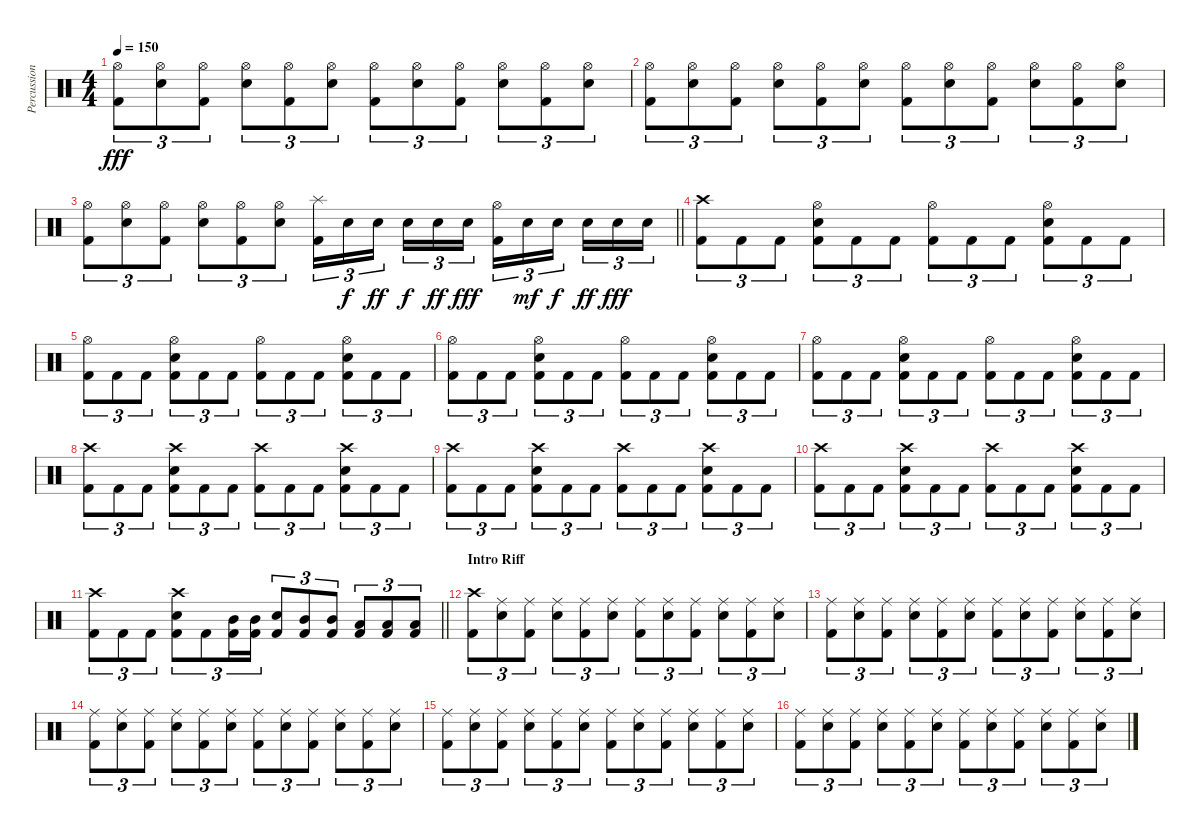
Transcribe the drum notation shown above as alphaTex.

\track ("Percussion" "Percussion") {instrument percussion}
\staff {score}
\articulation defaults
\ts (4 4)
\tempo 150
\clef neutral
\ks c
("Hi-Hat (open)" "Kick (hit) 2").8{tu (3 2) dy fff} ("Snare (hit) 2" "Hi-Hat (open)").8{tu (3 2)} ("Hi-Hat (open)" "Kick (hit) 2").8{tu (3 2)} ("Snare (hit) 2" "Hi-Hat (open)").8{tu (3 2)} ("Hi-Hat (open)" "Kick (hit) 2").8{tu (3 2)} ("Snare (hit) 2" "Hi-Hat (open)").8{tu (3 2)} ("Hi-Hat (open)" "Kick (hit) 2").8{tu (3 2)} ("Snare (hit) 2" "Hi-Hat (open)").8{tu (3 2)} ("Hi-Hat (open)" "Kick (hit) 2").8{tu (3 2)} ("Snare (hit) 2" "Hi-Hat (open)").8{tu (3 2)} ("Hi-Hat (open)" "Kick (hit) 2").8{tu (3 2)} ("Snare (hit) 2" "Hi-Hat (open)").8{tu (3 2)} |
("Hi-Hat (open)" "Kick (hit) 2").8{tu (3 2)} ("Snare (hit) 2" "Hi-Hat (open)").8{tu (3 2)} ("Hi-Hat (open)" "Kick (hit) 2").8{tu (3 2)} ("Snare (hit) 2" "Hi-Hat (open)").8{tu (3 2)} ("Hi-Hat (open)" "Kick (hit) 2").8{tu (3 2)} ("Snare (hit) 2" "Hi-Hat (open)").8{tu (3 2)} ("Hi-Hat (open)" "Kick (hit) 2").8{tu (3 2)} ("Snare (hit) 2" "Hi-Hat (open)").8{tu (3 2)} ("Hi-Hat (open)" "Kick (hit) 2").8{tu (3 2)} ("Snare (hit) 2" "Hi-Hat (open)").8{tu (3 2)} ("Hi-Hat (open)" "Kick (hit) 2").8{tu (3 2)} ("Snare (hit) 2" "Hi-Hat (open)").8{tu (3 2)} |
\barLineRight lightlight
("Hi-Hat (open)" "Kick (hit) 2").8{tu (3 2)} ("Snare (hit) 2" "Hi-Hat (open)").8{tu (3 2)} ("Hi-Hat (open)" "Kick (hit) 2").8{tu (3 2)} ("Snare (hit) 2" "Hi-Hat (open)").8{tu (3 2)} ("Hi-Hat (open)" "Kick (hit) 2").8{tu (3 2)} ("Snare (hit) 2" "Hi-Hat (open)").8{tu (3 2)} ("Splash (hit)" "Kick (hit) 2").16{tu (3 2)} "Snare (hit) 2".16{tu (3 2) dy f} "Snare (hit) 2".16{tu (3 2) dy ff beam splitsecondary} "Snare (hit) 2".16{tu (3 2) dy f} "Snare (hit) 2".16{tu (3 2) dy ff} "Snare (hit) 2".16{tu (3 2) dy fff} ("Hi-Hat (open)" "Kick (hit) 2").16{tu (3 2)} "Snare (hit) 2".16{tu (3 2) dy mf} "Snare (hit) 2".16{tu (3 2) dy f beam splitsecondary} "Snare (hit) 2".16{tu (3 2) dy ff} "Snare (hit) 2".16{tu (3 2) dy fff} "Snare (hit) 2".16{tu (3 2)} |
\section ("" "")
("Crash high (hit)" "Kick (hit) 2").8{tu (3 2)} "Kick (hit) 2".8{tu (3 2)} "Kick (hit) 2".8{tu (3 2)} ("Snare (hit) 2" "Hi-Hat (open)" "Kick (hit) 2").8{tu (3 2)} "Kick (hit) 2".8{tu (3 2)} "Kick (hit) 2".8{tu (3 2)} ("Hi-Hat (open)" "Kick (hit) 2").8{tu (3 2)} "Kick (hit) 2".8{tu (3 2)} "Kick (hit) 2".8{tu (3 2)} ("Snare (hit) 2" "Hi-Hat (open)" "Kick (hit) 2").8{tu (3 2)} "Kick (hit) 2".8{tu (3 2)} "Kick (hit) 2".8{tu (3 2)} |
("Hi-Hat (open)" "Kick (hit) 2").8{tu (3 2)} "Kick (hit) 2".8{tu (3 2)} "Kick (hit) 2".8{tu (3 2)} ("Snare (hit) 2" "Hi-Hat (open)" "Kick (hit) 2").8{tu (3 2)} "Kick (hit) 2".8{tu (3 2)} "Kick (hit) 2".8{tu (3 2)} ("Hi-Hat (open)" "Kick (hit) 2").8{tu (3 2)} "Kick (hit) 2".8{tu (3 2)} "Kick (hit) 2".8{tu (3 2)} ("Snare (hit) 2" "Hi-Hat (open)" "Kick (hit) 2").8{tu (3 2)} "Kick (hit) 2".8{tu (3 2)} "Kick (hit) 2".8{tu (3 2)} |
("Hi-Hat (open)" "Kick (hit) 2").8{tu (3 2)} "Kick (hit) 2".8{tu (3 2)} "Kick (hit) 2".8{tu (3 2)} ("Snare (hit) 2" "Hi-Hat (open)" "Kick (hit) 2").8{tu (3 2)} "Kick (hit) 2".8{tu (3 2)} "Kick (hit) 2".8{tu (3 2)} ("Hi-Hat (open)" "Kick (hit) 2").8{tu (3 2)} "Kick (hit) 2".8{tu (3 2)} "Kick (hit) 2".8{tu (3 2)} ("Snare (hit) 2" "Hi-Hat (open)" "Kick (hit) 2").8{tu (3 2)} "Kick (hit) 2".8{tu (3 2)} "Kick (hit) 2".8{tu (3 2)} |
("Hi-Hat (open)" "Kick (hit) 2").8{tu (3 2)} "Kick (hit) 2".8{tu (3 2)} "Kick (hit) 2".8{tu (3 2)} ("Snare (hit) 2" "Hi-Hat (open)" "Kick (hit) 2").8{tu (3 2)} "Kick (hit) 2".8{tu (3 2)} "Kick (hit) 2".8{tu (3 2)} ("Hi-Hat (open)" "Kick (hit) 2").8{tu (3 2)} "Kick (hit) 2".8{tu (3 2)} "Kick (hit) 2".8{tu (3 2)} ("Snare (hit) 2" "Hi-Hat (open)" "Kick (hit) 2").8{tu (3 2)} "Kick (hit) 2".8{tu (3 2)} "Kick (hit) 2".8{tu (3 2)} |
("Crash high (hit)" "Kick (hit) 2").8{tu (3 2)} "Kick (hit) 2".8{tu (3 2)} "Kick (hit) 2".8{tu (3 2)} ("Crash high (hit)" "Snare (hit) 2" "Kick (hit) 2").8{tu (3 2)} "Kick (hit) 2".8{tu (3 2)} "Kick (hit) 2".8{tu (3 2)} ("Crash high (hit)" "Kick (hit) 2").8{tu (3 2)} "Kick (hit) 2".8{tu (3 2)} "Kick (hit) 2".8{tu (3 2)} ("Crash high (hit)" "Snare (hit) 2" "Kick (hit) 2").8{tu (3 2)} "Kick (hit) 2".8{tu (3 2)} "Kick (hit) 2".8{tu (3 2)} |
("Crash high (hit)" "Kick (hit) 2").8{tu (3 2)} "Kick (hit) 2".8{tu (3 2)} "Kick (hit) 2".8{tu (3 2)} ("Crash high (hit)" "Snare (hit) 2" "Kick (hit) 2").8{tu (3 2)} "Kick (hit) 2".8{tu (3 2)} "Kick (hit) 2".8{tu (3 2)} ("Crash high (hit)" "Kick (hit) 2").8{tu (3 2)} "Kick (hit) 2".8{tu (3 2)} "Kick (hit) 2".8{tu (3 2)} ("Crash high (hit)" "Snare (hit) 2" "Kick (hit) 2").8{tu (3 2)} "Kick (hit) 2".8{tu (3 2)} "Kick (hit) 2".8{tu (3 2)} |
("Crash high (hit)" "Kick (hit) 2").8{tu (3 2)} "Kick (hit) 2".8{tu (3 2)} "Kick (hit) 2".8{tu (3 2)} ("Crash high (hit)" "Snare (hit) 2" "Kick (hit) 2").8{tu (3 2)} "Kick (hit) 2".8{tu (3 2)} "Kick (hit) 2".8{tu (3 2)} ("Crash high (hit)" "Kick (hit) 2").8{tu (3 2)} "Kick (hit) 2".8{tu (3 2)} "Kick (hit) 2".8{tu (3 2)} ("Crash high (hit)" "Snare (hit) 2" "Kick (hit) 2").8{tu (3 2)} "Kick (hit) 2".8{tu (3 2)} "Kick (hit) 2".8{tu (3 2)} |
\barLineRight lightlight
("Crash high (hit)" "Kick (hit) 2").8{tu (3 2)} "Kick (hit) 2".8{tu (3 2)} "Kick (hit) 2".8{tu (3 2)} ("Crash high (hit)" "Snare (hit) 2" "Kick (hit) 2").8{tu (3 2)} "Kick (hit) 2".8{tu (3 2)} ("Mid Tom (hit)" "Kick (hit) 2").16{tu (3 2)} ("Mid Tom (hit)" "Kick (hit) 2").16{tu (3 2)} ("Snare (hit) 2" "Kick (hit) 2").8{tu (3 2)} ("Mid Tom (hit)" "Kick (hit) 2").8{tu (3 2)} ("Mid Tom (hit)" "Kick (hit) 2").8{tu (3 2)} ("Low Tom (hit)" "Kick (hit) 2").8{tu (3 2)} ("Low Tom (hit)" "Kick (hit) 2").8{tu (3 2)} ("Low Tom (hit)" "Kick (hit) 2").8{tu (3 2)} |
\section ("" "Intro Riff")
("Crash high (hit)" "Kick (hit) 2").8{tu (3 2)} ("Snare (hit) 2" "Ride (middle)").8{tu (3 2)} ("Ride (middle)" "Kick (hit) 2").8{tu (3 2)} ("Snare (hit) 2" "Ride (middle)").8{tu (3 2)} ("Ride (middle)" "Kick (hit) 2").8{tu (3 2)} ("Snare (hit) 2" "Ride (middle)").8{tu (3 2)} ("Ride (middle)" "Kick (hit) 2").8{tu (3 2)} ("Snare (hit) 2" "Ride (middle)").8{tu (3 2)} ("Ride (middle)" "Kick (hit) 2").8{tu (3 2)} ("Snare (hit) 2" "Ride (middle)").8{tu (3 2)} ("Ride (middle)" "Kick (hit) 2").8{tu (3 2)} ("Snare (hit) 2" "Ride (middle)").8{tu (3 2)} |
("Ride (middle)" "Kick (hit) 2").8{tu (3 2)} ("Snare (hit) 2" "Ride (middle)").8{tu (3 2)} ("Ride (middle)" "Kick (hit) 2").8{tu (3 2)} ("Snare (hit) 2" "Ride (middle)").8{tu (3 2)} ("Ride (middle)" "Kick (hit) 2").8{tu (3 2)} ("Snare (hit) 2" "Ride (middle)").8{tu (3 2)} ("Ride (middle)" "Kick (hit) 2").8{tu (3 2)} ("Snare (hit) 2" "Ride (middle)").8{tu (3 2)} ("Ride (middle)" "Kick (hit) 2").8{tu (3 2)} ("Snare (hit) 2" "Ride (middle)").8{tu (3 2)} ("Ride (middle)" "Kick (hit) 2").8{tu (3 2)} ("Snare (hit) 2" "Ride (middle)").8{tu (3 2)} |
("Ride (middle)" "Kick (hit) 2").8{tu (3 2)} ("Snare (hit) 2" "Ride (middle)").8{tu (3 2)} ("Ride (middle)" "Kick (hit) 2").8{tu (3 2)} ("Snare (hit) 2" "Ride (middle)").8{tu (3 2)} ("Ride (middle)" "Kick (hit) 2").8{tu (3 2)} ("Snare (hit) 2" "Ride (middle)").8{tu (3 2)} ("Ride (middle)" "Kick (hit) 2").8{tu (3 2)} ("Snare (hit) 2" "Ride (middle)").8{tu (3 2)} ("Ride (middle)" "Kick (hit) 2").8{tu (3 2)} ("Snare (hit) 2" "Ride (middle)").8{tu (3 2)} ("Ride (middle)" "Kick (hit) 2").8{tu (3 2)} ("Snare (hit) 2" "Ride (middle)").8{tu (3 2)} |
("Ride (middle)" "Kick (hit) 2").8{tu (3 2)} ("Snare (hit) 2" "Ride (middle)").8{tu (3 2)} ("Ride (middle)" "Kick (hit) 2").8{tu (3 2)} ("Snare (hit) 2" "Ride (middle)").8{tu (3 2)} ("Ride (middle)" "Kick (hit) 2").8{tu (3 2)} ("Snare (hit) 2" "Ride (middle)").8{tu (3 2)} ("Ride (middle)" "Kick (hit) 2").8{tu (3 2)} ("Snare (hit) 2" "Ride (middle)").8{tu (3 2)} ("Ride (middle)" "Kick (hit) 2").8{tu (3 2)} ("Snare (hit) 2" "Ride (middle)").8{tu (3 2)} ("Ride (middle)" "Kick (hit) 2").8{tu (3 2)} ("Snare (hit) 2" "Ride (middle)").8{tu (3 2)} |
("Ride (middle)" "Kick (hit) 2").8{tu (3 2)} ("Snare (hit) 2" "Ride (middle)").8{tu (3 2)} ("Ride (middle)" "Kick (hit) 2").8{tu (3 2)} ("Snare (hit) 2" "Ride (middle)").8{tu (3 2)} ("Ride (middle)" "Kick (hit) 2").8{tu (3 2)} ("Snare (hit) 2" "Ride (middle)").8{tu (3 2)} ("Ride (middle)" "Kick (hit) 2").8{tu (3 2)} ("Snare (hit) 2" "Ride (middle)").8{tu (3 2)} ("Ride (middle)" "Kick (hit) 2").8{tu (3 2)} ("Snare (hit) 2" "Ride (middle)").8{tu (3 2)} ("Ride (middle)" "Kick (hit) 2").8{tu (3 2)} ("Snare (hit) 2" "Ride (middle)").8{tu (3 2)}
